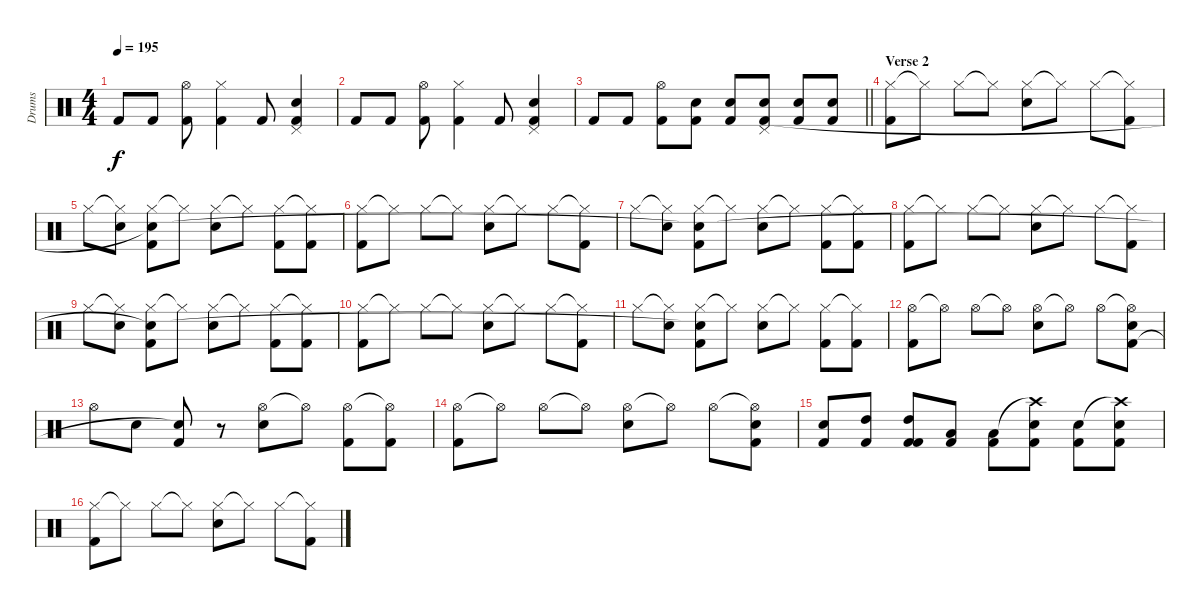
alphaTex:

\track ("Drums" "Drums") {instrument percussion}
\staff {score}
\articulation defaults
\ts (4 4)
\tempo 195
\clef neutral
\ks c "Kick (hit) 2".8{dy f} "Kick (hit) 2".8
("Hi-Hat (open)" "Kick (hit) 2").8 ("Hi-Hat (closed)" "Kick (hit) 2").4 "Kick (hit) 2".8 ("Pedal Hi-Hat (hit)" "Snare (hit) 2" "Kick (hit) 2").4 |
"Kick (hit) 2".8 "Kick (hit) 2".8 ("Hi-Hat (open)" "Kick (hit) 2").8 ("Hi-Hat (closed)" "Kick (hit) 2").4 "Kick (hit) 2".8 ("Pedal Hi-Hat (hit)" "Snare (hit) 2" "Kick (hit) 2").4 |
\barLineRight lightlight "Kick (hit) 2".8 "Kick (hit) 2".8
("Hi-Hat (open)" "Kick (hit) 2").8 ("Snare (hit) 2" "Kick (hit) 2").8 ("Snare (hit) 2" "Kick (hit) 2").8 ("Pedal Hi-Hat (hit)" "Snare (hit) 2" "Kick (hit) 2").8 ("Snare (hit) 2" "Kick (hit) 2").8 ("Snare (hit) 2" "Kick (hit) 2").8 |
\section ("" "Verse 2")
("Hi-Hat (closed)" "Kick (hit) 2").8 "Hi-Hat (closed)"{t}.8 "Hi-Hat (closed)".8 "Hi-Hat (closed)"{t}.8 ("Hi-Hat (closed)" "Snare (hit) 2").8 "Hi-Hat (closed)"{t}.8 "Hi-Hat (closed)".8 ("Hi-Hat (closed)"{t} "Kick (hit) 2").8 |
"Hi-Hat (closed)".8 ("Hi-Hat (closed)"{t} "Snare (hit) 2").8 ("Hi-Hat (closed)" "Kick (hit) 2" "Snare (hit) 2"{t}).8 "Hi-Hat (closed)"{t}.8 ("Hi-Hat (closed)" "Snare (hit) 2").8 "Hi-Hat (closed)"{t}.8 ("Hi-Hat (closed)" "Kick (hit) 2").8 ("Hi-Hat (closed)"{t} "Kick (hit) 2").8 |
("Hi-Hat (closed)" "Kick (hit) 2").8 "Hi-Hat (closed)"{t}.8 "Hi-Hat (closed)".8 "Hi-Hat (closed)"{t}.8 ("Hi-Hat (closed)" "Snare (hit) 2").8 "Hi-Hat (closed)"{t}.8 "Hi-Hat (closed)".8 ("Hi-Hat (closed)"{t} "Kick (hit) 2").8 |
"Hi-Hat (closed)".8 ("Hi-Hat (closed)"{t} "Snare (hit) 2").8 ("Hi-Hat (closed)" "Kick (hit) 2" "Snare (hit) 2"{t}).8 "Hi-Hat (closed)"{t}.8 ("Hi-Hat (closed)" "Snare (hit) 2").8 "Hi-Hat (closed)"{t}.8 ("Hi-Hat (closed)" "Kick (hit) 2").8 ("Hi-Hat (closed)"{t} "Kick (hit) 2").8 |
("Hi-Hat (closed)" "Kick (hit) 2").8 "Hi-Hat (closed)"{t}.8 "Hi-Hat (closed)".8 "Hi-Hat (closed)"{t}.8 ("Hi-Hat (closed)" "Snare (hit) 2").8 "Hi-Hat (closed)"{t}.8 "Hi-Hat (closed)".8 ("Hi-Hat (closed)"{t} "Kick (hit) 2").8 |
"Hi-Hat (closed)".8 ("Hi-Hat (closed)"{t} "Snare (hit) 2").8 ("Hi-Hat (closed)" "Kick (hit) 2" "Snare (hit) 2"{t}).8 "Hi-Hat (closed)"{t}.8 ("Hi-Hat (closed)" "Snare (hit) 2").8 "Hi-Hat (closed)"{t}.8 ("Hi-Hat (closed)" "Kick (hit) 2").8 ("Hi-Hat (closed)"{t} "Kick (hit) 2").8 |
("Hi-Hat (closed)" "Kick (hit) 2").8 "Hi-Hat (closed)"{t}.8 "Hi-Hat (closed)".8 "Hi-Hat (closed)"{t}.8 ("Hi-Hat (closed)" "Snare (hit) 2").8 "Hi-Hat (closed)"{t}.8 "Hi-Hat (closed)".8 ("Hi-Hat (closed)"{t} "Kick (hit) 2").8 |
"Hi-Hat (closed)".8 ("Hi-Hat (closed)"{t} "Snare (hit) 2").8 ("Hi-Hat (closed)" "Kick (hit) 2" "Snare (hit) 2"{t}).8 "Hi-Hat (closed)"{t}.8 ("Hi-Hat (closed)" "Snare (hit) 2").8 "Hi-Hat (closed)"{t}.8 ("Hi-Hat (closed)" "Kick (hit) 2").8 ("Hi-Hat (closed)"{t} "Kick (hit) 2").8 |
("Hi-Hat (open)" "Kick (hit) 2").8 "Hi-Hat (open)"{t}.8 "Hi-Hat (open)".8 "Hi-Hat (open)"{t}.8 ("Hi-Hat (open)" "Snare (hit) 2").8 "Hi-Hat (open)"{t}.8 "Hi-Hat (open)".8 ("Hi-Hat (open)"{t} "Kick (hit) 2" "Snare (hit) 2").8 |
"Hi-Hat (open)".8 "Snare (hit) 2".8 ("Kick (hit) 2" "Snare (hit) 2"{t}).8 r.8 ("Hi-Hat (open)" "Snare (hit) 2").8 "Hi-Hat (open)"{t}.8 ("Hi-Hat (open)" "Kick (hit) 2").8 ("Hi-Hat (open)"{t} "Kick (hit) 2").8 |
("Hi-Hat (open)" "Kick (hit) 2").8 "Hi-Hat (open)"{t}.8 "Hi-Hat (open)".8 "Hi-Hat (open)"{t}.8 ("Hi-Hat (open)" "Snare (hit) 2").8 "Hi-Hat (open)"{t}.8 "Hi-Hat (open)".8 ("Hi-Hat (open)"{t} "Kick (hit) 2" "Snare (hit) 2").8 |
("Snare (hit) 2" "Kick (hit) 2").8 ("High Tom (hit)" "Kick (hit) 2").8 ("Kick (hit) 2" "High Tom (hit)" "Kick (hit) 2").8 ("Low Tom (hit)" "Kick (hit) 2").8 ("Low Tom (hit)" "Kick (hit) 2").8 ("Crash high (hit)"{t} "Snare (hit) 2" "Kick (hit) 2").8 ("Snare (hit) 2" "Kick (hit) 2").8 ("Crash high (hit)"{t} "Snare (hit) 2" "Kick (hit) 2").8 |
("Hi-Hat (closed)" "Kick (hit) 2").8 "Hi-Hat (closed)"{t}.8 "Hi-Hat (closed)".8 "Hi-Hat (closed)"{t}.8 ("Hi-Hat (closed)" "Snare (hit) 2").8 "Hi-Hat (closed)"{t}.8 "Hi-Hat (closed)".8 ("Hi-Hat (closed)"{t} "Kick (hit) 2").8
